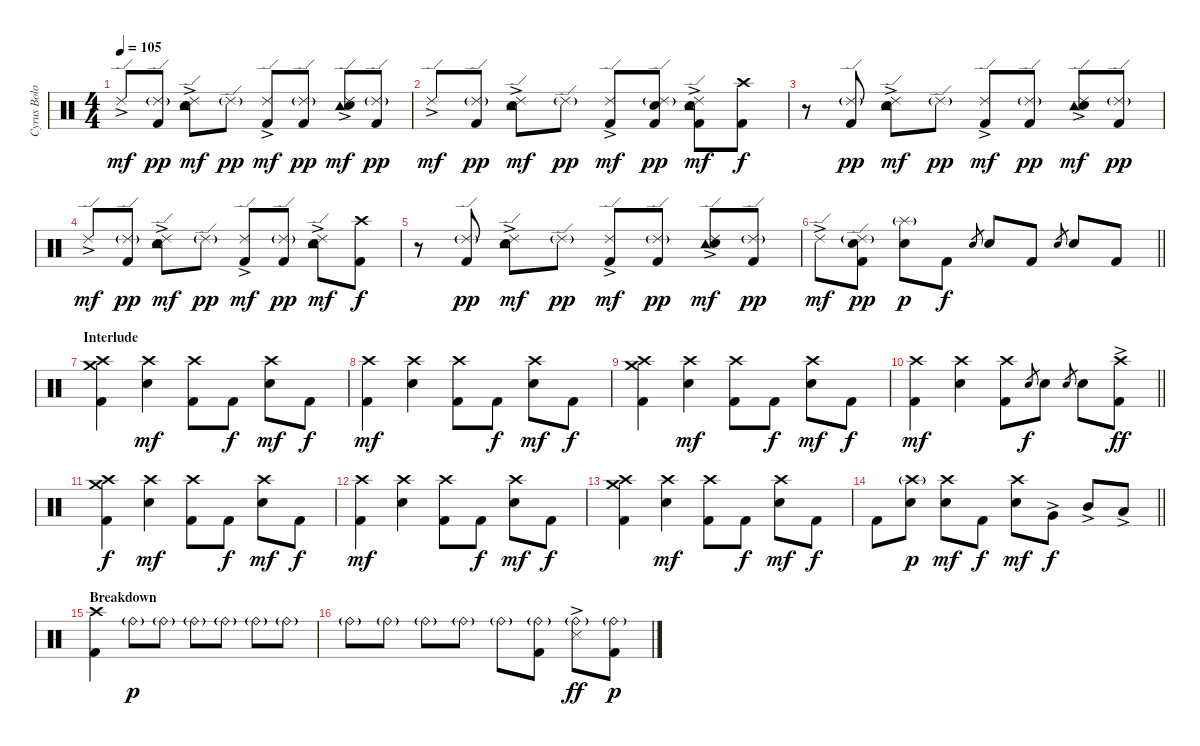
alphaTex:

\track ("Cyrus Bolooki" "Cyrus Bolo") {instrument percussion}
\staff {score}
\articulation defaults
\ts (4 4)
\tempo 105
\clef neutral
\ks c "Ride (edge) 2"{ac}.8{dy mf}
("Ride (edge) 2"{g} "Kick (hit) 2").8{dy pp} ("Ride (edge) 2"{ac} "Tambourine (hit)" "Electric Snare (hit)").8{dy mf} "Ride (edge) 2"{g}.8{dy pp} ("Ride (edge) 2"{ac} "Kick (hit) 2").8{dy mf} ("Ride (edge) 2"{g} "Kick (hit) 2").8{dy pp} ("Ride (edge) 2"{ac} "Tambourine (hit)" "Electric Snare (hit)").8{dy mf} ("Ride (edge) 2"{g} "Kick (hit) 2").8{dy pp} |
"Ride (edge) 2"{ac}.8{dy mf} ("Ride (edge) 2"{g} "Kick (hit) 2").8{dy pp} ("Ride (edge) 2"{ac} "Tambourine (hit)" "Electric Snare (hit)").8{dy mf} "Ride (edge) 2"{g}.8{dy pp} ("Ride (edge) 2"{ac} "Kick (hit) 2").8{dy mf} ("Ride (edge) 2"{g} "Electric Snare (hit)" "Kick (hit) 2").8{dy pp} ("Ride (edge) 2"{ac} "Tambourine (hit)" "Electric Snare (hit)" "Kick (hit) 2").8{dy mf} ("Crash high (hit)" "Kick (hit) 2").8{dy f} |
r.8 ("Ride (edge) 2"{g} "Kick (hit) 2").8{dy pp} ("Ride (edge) 2"{ac} "Tambourine (hit)" "Electric Snare (hit)").8{dy mf} "Ride (edge) 2"{g}.8{dy pp} ("Ride (edge) 2"{ac} "Kick (hit) 2").8{dy mf} ("Ride (edge) 2"{g} "Kick (hit) 2").8{dy pp} ("Ride (edge) 2"{ac} "Tambourine (hit)" "Electric Snare (hit)").8{dy mf} ("Ride (edge) 2"{g} "Kick (hit) 2").8{dy pp} |
"Ride (edge) 2"{ac}.8{dy mf} ("Ride (edge) 2"{g} "Kick (hit) 2").8{dy pp} ("Ride (edge) 2"{ac} "Tambourine (hit)" "Electric Snare (hit)").8{dy mf} "Ride (edge) 2"{g}.8{dy pp} ("Ride (edge) 2"{ac} "Kick (hit) 2").8{dy mf} ("Ride (edge) 2"{g} "Kick (hit) 2").8{dy pp} ("Ride (edge) 2"{ac} "Tambourine (hit)" "Electric Snare (hit)").8{dy mf} ("Crash high (hit)" "Kick (hit) 2").8{dy f} |
r.8 ("Ride (edge) 2"{g} "Kick (hit) 2").8{dy pp} ("Ride (edge) 2"{ac} "Tambourine (hit)" "Electric Snare (hit)").8{dy mf} "Ride (edge) 2"{g}.8{dy pp} ("Ride (edge) 2"{ac} "Kick (hit) 2").8{dy mf} ("Ride (edge) 2"{g} "Kick (hit) 2").8{dy pp} ("Ride (edge) 2"{ac} "Tambourine (hit)" "Electric Snare (hit)").8{dy mf} ("Ride (edge) 2"{g} "Kick (hit) 2").8{dy pp} |
\barLineRight lightlight "Ride (edge) 2"{ac}.8{dy mf}
("Ride (edge) 2"{g} "Electric Snare (hit)" "Kick (hit) 2").8{dy pp} ("Splash (hit)"{g} "Electric Snare (hit)").8{dy p} "Kick (hit) 2".8{dy f} "Electric Snare (hit)".8{gr} "Electric Snare (hit)".8 "Kick (hit) 2".8 "Electric Snare (hit)".8{gr} "Electric Snare (hit)".8 "Kick (hit) 2".8 |
\section ("" "Interlude")
("Crash high (hit)" "Crash medium (hit)" "Kick (hit) 2").4 ("Crash high (hit)" "Electric Snare (hit)").4{dy mf} ("Crash high (hit)" "Kick (hit) 2").8 "Kick (hit) 2".8{dy f} ("Crash high (hit)" "Electric Snare (hit)").8{dy mf} "Kick (hit) 2".8{dy f} |
("Crash high (hit)" "Kick (hit) 2").4{dy mf} ("Crash high (hit)" "Electric Snare (hit)").4 ("Crash high (hit)" "Kick (hit) 2").8 "Kick (hit) 2".8{dy f} ("Crash high (hit)" "Electric Snare (hit)").8{dy mf} "Kick (hit) 2".8{dy f} |
("Crash high (hit)" "Crash medium (hit)" "Kick (hit) 2").4 ("Crash high (hit)" "Electric Snare (hit)").4{dy mf} ("Crash high (hit)" "Kick (hit) 2").8 "Kick (hit) 2".8{dy f} ("Crash high (hit)" "Electric Snare (hit)").8{dy mf} "Kick (hit) 2".8{dy f} |
\barLineRight lightlight
("Crash high (hit)" "Kick (hit) 2").4{dy mf} ("Crash high (hit)" "Electric Snare (hit)").4 ("Crash high (hit)" "Kick (hit) 2").8 "Electric Snare (hit)".8{gr dy f} "Electric Snare (hit)".8 "Electric Snare (hit)".8{gr} "Electric Snare (hit)".8 ("Crash high (hit)"{ac} "Kick (hit) 2").8{dy ff} |
("Crash high (hit)" "Crash medium (hit)" "Kick (hit) 2").4{dy f} ("Crash high (hit)" "Electric Snare (hit)").4{dy mf} ("Crash high (hit)" "Kick (hit) 2").8 "Kick (hit) 2".8{dy f} ("Crash high (hit)" "Electric Snare (hit)").8{dy mf} "Kick (hit) 2".8{dy f} |
("Crash high (hit)" "Kick (hit) 2").4{dy mf} ("Crash high (hit)" "Electric Snare (hit)").4 ("Crash high (hit)" "Kick (hit) 2").8 "Kick (hit) 2".8{dy f} ("Crash high (hit)" "Electric Snare (hit)").8{dy mf} "Kick (hit) 2".8{dy f} |
("Crash high (hit)" "Crash medium (hit)" "Kick (hit) 2").4 ("Crash high (hit)" "Electric Snare (hit)").4{dy mf} ("Crash high (hit)" "Kick (hit) 2").8 "Kick (hit) 2".8{dy f} ("Crash high (hit)" "Electric Snare (hit)").8{dy mf} "Kick (hit) 2".8{dy f} |
\barLineRight lightlight "Kick (hit) 2".8
("Crash high (hit)"{g} "Electric Snare (hit)").8{dy p} ("Crash high (hit)" "Electric Snare (hit)").8{dy mf} "Kick (hit) 2".8{dy f} ("Crash high (hit)" "Electric Snare (hit)").8{dy mf} "Very Low Tom (hit)"{ac}.8{dy f} "Mid Tom (hit)"{ac}.8 "Low Tom (hit)"{ac}.8 |
\section ("" "Breakdown")
("Crash high (hit)" "Kick (hit) 2").4 "Ride (bell)"{g}.8{dy p} "Ride (bell)"{g}.8 "Ride (bell)"{g}.8 "Ride (bell)"{g}.8 "Ride (bell)"{g}.8 "Ride (bell)"{g}.8 |
"Ride (bell)"{g}.8 "Ride (bell)"{g}.8 "Ride (bell)"{g}.8 "Ride (bell)"{g}.8 "Ride (bell)"{g}.8 ("Ride (bell)"{g} "Kick (hit) 2").8 ("Ride (bell)"{g} "Snare (side stick) 3"{ac}).8{dy ff} ("Ride (bell)"{g} "Kick (hit) 2").8{dy p}
